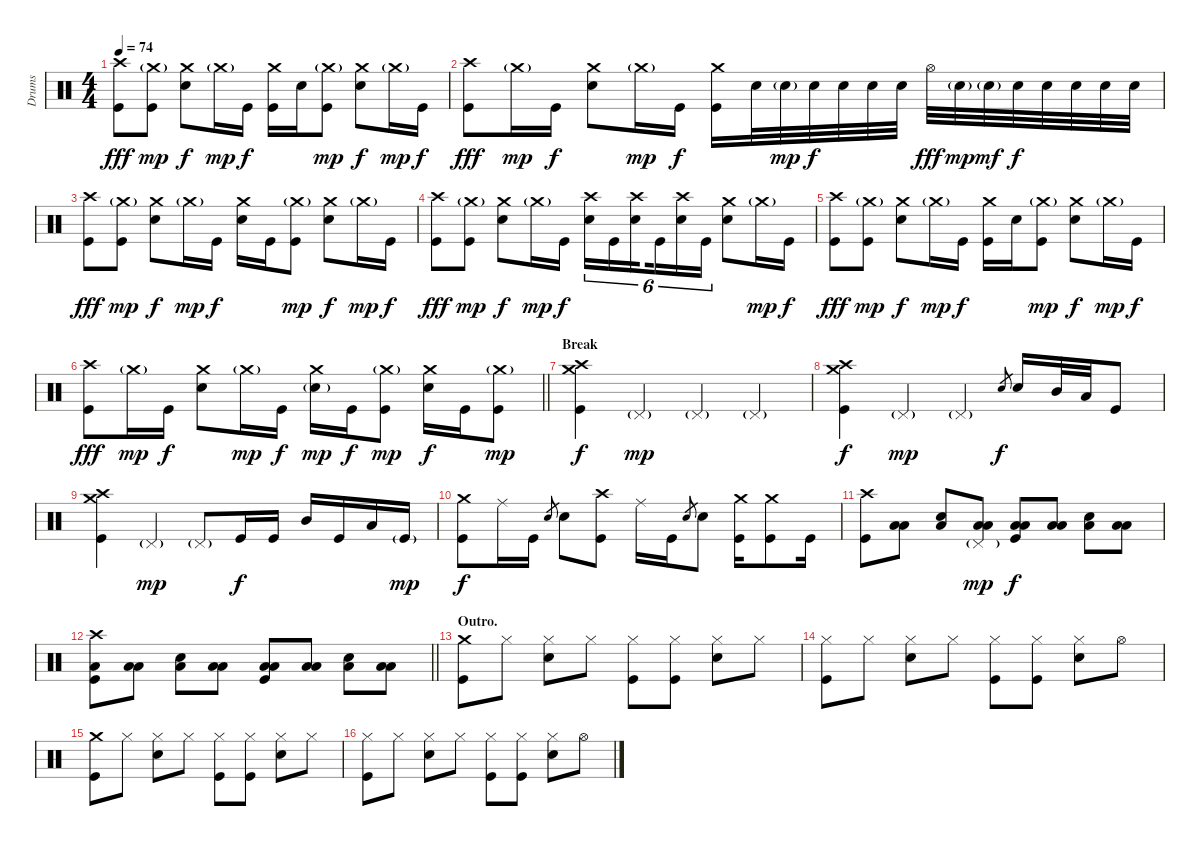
\track ("Drums" "Drums") {instrument percussion}
\staff {score}
\articulation defaults
\ts (4 4)
\tempo 74
\clef neutral
\ks c
("Crash high (hit)" "Kick (hit)").8{dy fff} ("Crash medium (hit)"{g} "Kick (hit)").8{dy mp} ("Crash medium (hit)" "Snare (hit) 2").8{dy f} "Crash medium (hit)"{g}.16{dy mp} "Kick (hit)".16{dy f} ("Crash medium (hit)" "Kick (hit)").16 "Snare (hit) 2".16 ("Crash medium (hit)"{g} "Kick (hit)").8{dy mp} ("Crash medium (hit)" "Snare (hit) 2").8{dy f} "Crash medium (hit)"{g}.16{dy mp} "Kick (hit)".16{dy f} |
("Crash high (hit)" "Kick (hit)").8{dy fff} "Crash medium (hit)"{g}.16{dy mp} "Kick (hit)".16{dy f} ("Crash medium (hit)" "Snare (hit) 2").8 "Crash medium (hit)"{g}.16{dy mp} "Kick (hit)".16{dy f} ("Crash medium (hit)" "Kick (hit)").16 "Snare (hit) 2".32 "Electric Snare (hit)"{g}.32{dy mp} "Electric Snare (hit)".32{dy f} "Electric Snare (hit)".32 "Electric Snare (hit)".32 "Electric Snare (hit)".32 "Hi-Hat (open)".32{dy fff} "Electric Snare (hit)"{g}.32{dy mp} "Electric Snare (hit)"{g}.32{dy mf} "Electric Snare (hit)".32{dy f} "Electric Snare (hit)".32 "Electric Snare (hit)".32 "Electric Snare (hit)".32 "Electric Snare (hit)".32 |
("Crash high (hit)" "Kick (hit)").8{dy fff} ("Crash medium (hit)"{g} "Kick (hit)").8{dy mp} ("Crash medium (hit)" "Snare (hit) 2").8{dy f} "Crash medium (hit)"{g}.16{dy mp} "Kick (hit)".16{dy f} ("Crash medium (hit)" "Snare (hit) 2").16 "Kick (hit)".16 ("Crash medium (hit)"{g} "Kick (hit)").8{dy mp} ("Crash medium (hit)" "Snare (hit) 2").8{dy f} "Crash medium (hit)"{g}.16{dy mp} "Kick (hit)".16{dy f} |
("Crash high (hit)" "Kick (hit)").8{dy fff} ("Crash medium (hit)"{g} "Kick (hit)").8{dy mp} ("Crash medium (hit)" "Snare (hit) 2").8{dy f} "Crash medium (hit)"{g}.16{dy mp} "Kick (hit)".16{dy f} ("Crash high (hit)" "Snare (hit) 2").16{tu (6 4)} "Kick (hit)".16{tu (6 4)} ("Crash high (hit)" "Snare (hit) 2").16{tu (6 4) beam splitsecondary} "Kick (hit)".16{tu (6 4)} ("Crash high (hit)" "Snare (hit) 2").16{tu (6 4)} "Kick (hit)".16{tu (6 4)} ("Crash medium (hit)" "Snare (hit) 2").8 "Crash medium (hit)"{g}.16{dy mp} "Kick (hit)".16{dy f} |
("Crash high (hit)" "Kick (hit)").8{dy fff} ("Crash medium (hit)"{g} "Kick (hit)").8{dy mp} ("Crash medium (hit)" "Snare (hit) 2").8{dy f} "Crash medium (hit)"{g}.16{dy mp} "Kick (hit)".16{dy f} ("Crash medium (hit)" "Kick (hit)").16 "Snare (hit) 2".16 ("Crash medium (hit)"{g} "Kick (hit)").8{dy mp} ("Crash medium (hit)" "Snare (hit) 2").8{dy f} "Crash medium (hit)"{g}.16{dy mp} "Kick (hit)".16{dy f} |
\barLineRight lightlight
("Crash high (hit)" "Kick (hit)").8{dy fff} "Crash medium (hit)"{g}.16{dy mp} "Kick (hit)".16{dy f} ("Crash medium (hit)" "Snare (hit) 2").8 "Crash medium (hit)"{g}.16{dy mp} "Kick (hit)".16{dy f} ("Crash medium (hit)" "Snare (hit) 2"{g}).16{dy mp} "Kick (hit)".16{dy f} ("Crash medium (hit)"{g} "Kick (hit)").8{dy mp} ("Crash medium (hit)" "Snare (hit) 2").16{dy f} "Kick (hit)".16 ("Crash medium (hit)"{g} "Kick (hit)").8{dy mp} |
\section ("" "Break")
("Crash high (hit)" "Crash medium (hit)" "Kick (hit)").4{dy f} "Pedal Hi-Hat (hit)"{g}.4{dy mp} "Pedal Hi-Hat (hit)"{g}.4 "Pedal Hi-Hat (hit)"{g}.4 |
("Crash high (hit)" "Crash medium (hit)" "Kick (hit)").4{dy f} "Pedal Hi-Hat (hit)"{g}.4{dy mp} "Pedal Hi-Hat (hit)"{g}.4 "Electric Snare (hit)".8{gr dy f} "Electric Snare (hit)".16 "Mid Tom (hit)".32 "Low Tom (hit)".32 "Kick (hit)".8 |
("Crash high (hit)" "Crash medium (hit)" "Kick (hit)").4 "Pedal Hi-Hat (hit)"{g}.4{dy mp} "Pedal Hi-Hat (hit)"{g}.8 "Kick (hit)".16{dy f} "Kick (hit)".16 "Mid Tom (hit)".16 "Kick (hit)".16 "Low Tom (hit)".16 "Kick (hit)"{g}.16{dy mp} |
("Crash medium (hit)" "Kick (hit)").8{dy f} "Ride (middle)".16 "Kick (hit)".16 "Electric Snare (hit)".8{gr} "Electric Snare (hit)".8 ("Crash high (hit)" "Kick (hit)").8 "Ride (middle)".16 "Kick (hit)".16 "Electric Snare (hit)".8{gr} "Electric Snare (hit)".8 ("Crash medium (hit)" "Kick (hit)").16 ("Crash medium (hit)" "Kick (hit)").8 "Kick (hit)".16 |
("Crash high (hit)" "Kick (hit)").8 ("Low Tom (hit)" "Low Floor Tom (hit)").8 ("Electric Snare (hit)" "Low Floor Tom (hit)").8 ("Pedal Hi-Hat (hit)"{g} "Low Tom (hit)" "Low Floor Tom (hit)").8{dy mp} ("Low Tom (hit)" "Low Floor Tom (hit)" "Kick (hit)").8{dy f} ("Low Tom (hit)" "Low Floor Tom (hit)").8 ("Electric Snare (hit)" "Low Floor Tom (hit)").8 ("Low Tom (hit)" "Low Floor Tom (hit)").8 |
\barLineRight lightlight
("Crash high (hit)" "Low Floor Tom (hit)" "Kick (hit)").8 ("Low Tom (hit)" "Low Floor Tom (hit)").8 ("Electric Snare (hit)" "Low Floor Tom (hit)").8 ("Low Tom (hit)" "Low Floor Tom (hit)").8 ("Low Tom (hit)" "Low Floor Tom (hit)" "Kick (hit)").8 ("Low Tom (hit)" "Low Floor Tom (hit)").8 ("Electric Snare (hit)" "Low Floor Tom (hit)").8 ("Low Tom (hit)" "Low Floor Tom (hit)").8 |
\section ("" "Outro.")
("Crash medium (hit)" "Kick (hit)").8 "Hi-Hat (closed)".8 ("Hi-Hat (closed)" "Snare (hit) 2").8 "Hi-Hat (closed)".8 ("Hi-Hat (closed)" "Kick (hit)").8 ("Hi-Hat (closed)" "Kick (hit)").8 ("Hi-Hat (closed)" "Snare (hit) 2").8 "Hi-Hat (closed)".8 |
("Hi-Hat (closed)" "Kick (hit)").8 "Hi-Hat (closed)".8 ("Hi-Hat (closed)" "Snare (hit) 2").8 "Hi-Hat (closed)".8 ("Hi-Hat (closed)" "Kick (hit)").8 ("Hi-Hat (closed)" "Kick (hit)").8 ("Hi-Hat (closed)" "Snare (hit) 2").8 "Hi-Hat (open)".8 |
("Crash medium (hit)" "Kick (hit)").8 "Hi-Hat (closed)".8 ("Hi-Hat (closed)" "Snare (hit) 2").8 "Hi-Hat (closed)".8 ("Hi-Hat (closed)" "Kick (hit)").8 ("Hi-Hat (closed)" "Kick (hit)").8 ("Hi-Hat (closed)" "Snare (hit) 2").8 "Hi-Hat (closed)".8 |
("Hi-Hat (closed)" "Kick (hit)").8 "Hi-Hat (closed)".8 ("Hi-Hat (closed)" "Snare (hit) 2").8 "Hi-Hat (closed)".8 ("Hi-Hat (closed)" "Kick (hit)").8 ("Hi-Hat (closed)" "Kick (hit)").8 ("Hi-Hat (closed)" "Snare (hit) 2").8 "Hi-Hat (open)".8
